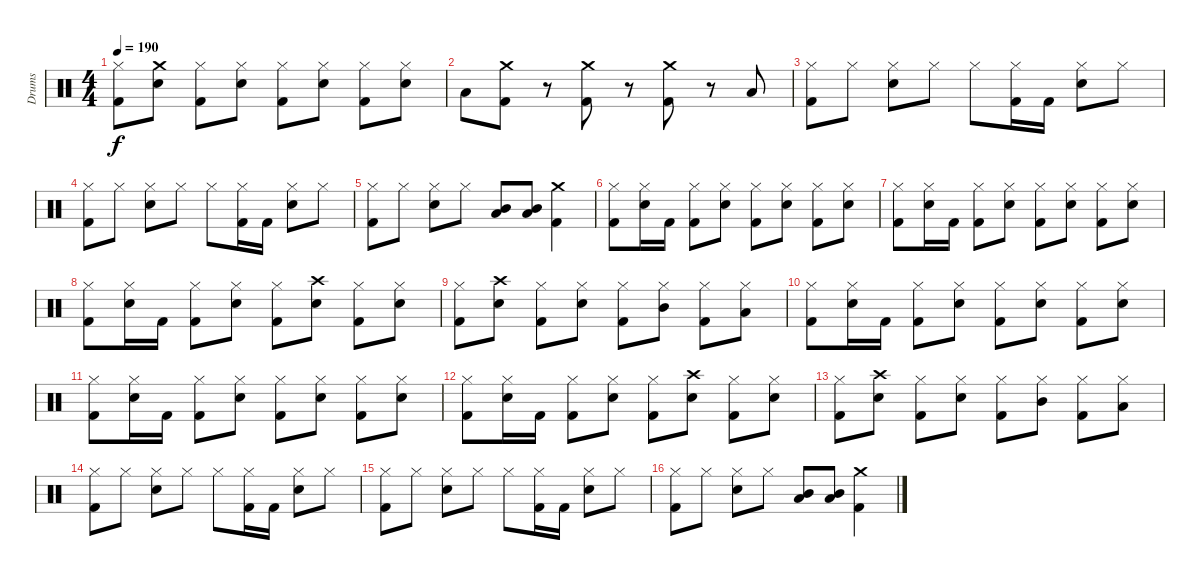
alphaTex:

\track ("Drums" "Drums") {instrument percussion}
\staff {score}
\articulation defaults
\ts (4 4)
\tempo 190
\clef neutral
\ks c
("Kick (hit) 2" "Hi-Hat (closed)").8{dy f} ("Snare (hit) 2" "Crash medium (hit)").8 ("Kick (hit) 2" "Hi-Hat (closed)").8 ("Snare (hit) 2" "Hi-Hat (closed)").8 ("Kick (hit) 2" "Hi-Hat (closed)").8 ("Snare (hit) 2" "Hi-Hat (closed)").8 ("Kick (hit) 2" "Hi-Hat (closed)").8 ("Snare (hit) 2" "Hi-Hat (closed)").8 |
"Low Tom (hit)".8 ("Kick (hit) 2" "Crash medium (hit)").8 r.8 ("Kick (hit) 2" "Crash medium (hit)").8 r.8 ("Kick (hit) 2" "Crash medium (hit)").8 r.8 "Low Tom (hit)".8 |
("Kick (hit) 2" "Hi-Hat (closed)").8 "Hi-Hat (closed)".8 ("Snare (hit) 2" "Hi-Hat (closed)").8 "Hi-Hat (closed)".8 "Hi-Hat (closed)".8 ("Kick (hit) 2" "Hi-Hat (closed)").16 "Kick (hit) 2".16 ("Snare (hit) 2" "Hi-Hat (closed)").8 "Hi-Hat (closed)".8 |
("Kick (hit) 2" "Hi-Hat (closed)").8 "Hi-Hat (closed)".8 ("Snare (hit) 2" "Hi-Hat (closed)").8 "Hi-Hat (closed)".8 "Hi-Hat (closed)".8 ("Kick (hit) 2" "Hi-Hat (closed)").16 "Kick (hit) 2".16 ("Snare (hit) 2" "Hi-Hat (closed)").8 "Hi-Hat (closed)".8 |
("Kick (hit) 2" "Hi-Hat (closed)").8 "Hi-Hat (closed)".8 ("Snare (hit) 2" "Hi-Hat (closed)").8 "Hi-Hat (closed)".8 ("Mid Tom (hit)" "Low Tom (hit)").8{bd 240} ("Mid Tom (hit)" "Low Tom (hit)").8{bu 240} ("Crash medium (hit)" "Kick (hit) 2").4 |
("Kick (hit) 2" "Hi-Hat (closed)").8 ("Snare (hit) 2" "Hi-Hat (closed)").16 "Kick (hit) 2".16 ("Kick (hit) 2" "Hi-Hat (closed)").8 ("Snare (hit) 2" "Hi-Hat (closed)").8 ("Kick (hit) 2" "Hi-Hat (closed)").8 ("Snare (hit) 2" "Hi-Hat (closed)").8 ("Kick (hit) 2" "Hi-Hat (closed)").8 ("Snare (hit) 2" "Hi-Hat (closed)").8 |
("Kick (hit) 2" "Hi-Hat (closed)").8 ("Snare (hit) 2" "Hi-Hat (closed)").16 "Kick (hit) 2".16 ("Kick (hit) 2" "Hi-Hat (closed)").8 ("Snare (hit) 2" "Hi-Hat (closed)").8 ("Kick (hit) 2" "Hi-Hat (closed)").8 ("Snare (hit) 2" "Hi-Hat (closed)").8 ("Kick (hit) 2" "Hi-Hat (closed)").8 ("Snare (hit) 2" "Hi-Hat (closed)").8 |
("Kick (hit) 2" "Hi-Hat (closed)").8 ("Snare (hit) 2" "Hi-Hat (closed)").16 "Kick (hit) 2".16 ("Kick (hit) 2" "Hi-Hat (closed)").8 ("Snare (hit) 2" "Hi-Hat (closed)").8 ("Kick (hit) 2" "Hi-Hat (closed)").8 ("Snare (hit) 2" "Crash high (hit)").8 ("Kick (hit) 2" "Hi-Hat (closed)").8 ("Snare (hit) 2" "Hi-Hat (closed)").8 |
("Kick (hit) 2" "Hi-Hat (closed)").8 ("Snare (hit) 2" "Crash high (hit)").8 ("Kick (hit) 2" "Hi-Hat (closed)").8 ("Snare (hit) 2" "Hi-Hat (closed)").8 ("Kick (hit) 2" "Hi-Hat (closed)").8 ("Hi-Hat (closed)" "Mid Tom (hit)").8 ("Kick (hit) 2" "Hi-Hat (closed)").8 ("Hi-Hat (closed)" "Low Tom (hit)").8 |
("Kick (hit) 2" "Hi-Hat (closed)").8 ("Snare (hit) 2" "Hi-Hat (closed)").16 "Kick (hit) 2".16 ("Kick (hit) 2" "Hi-Hat (closed)").8 ("Snare (hit) 2" "Hi-Hat (closed)").8 ("Kick (hit) 2" "Hi-Hat (closed)").8 ("Snare (hit) 2" "Hi-Hat (closed)").8 ("Kick (hit) 2" "Hi-Hat (closed)").8 ("Snare (hit) 2" "Hi-Hat (closed)").8 |
("Kick (hit) 2" "Hi-Hat (closed)").8 ("Snare (hit) 2" "Hi-Hat (closed)").16 "Kick (hit) 2".16 ("Kick (hit) 2" "Hi-Hat (closed)").8 ("Snare (hit) 2" "Hi-Hat (closed)").8 ("Kick (hit) 2" "Hi-Hat (closed)").8 ("Snare (hit) 2" "Hi-Hat (closed)").8 ("Kick (hit) 2" "Hi-Hat (closed)").8 ("Snare (hit) 2" "Hi-Hat (closed)").8 |
("Kick (hit) 2" "Hi-Hat (closed)").8 ("Snare (hit) 2" "Hi-Hat (closed)").16 "Kick (hit) 2".16 ("Kick (hit) 2" "Hi-Hat (closed)").8 ("Snare (hit) 2" "Hi-Hat (closed)").8 ("Kick (hit) 2" "Hi-Hat (closed)").8 ("Snare (hit) 2" "Crash high (hit)").8 ("Kick (hit) 2" "Hi-Hat (closed)").8 ("Snare (hit) 2" "Hi-Hat (closed)").8 |
("Kick (hit) 2" "Hi-Hat (closed)").8 ("Snare (hit) 2" "Crash high (hit)").8 ("Kick (hit) 2" "Hi-Hat (closed)").8 ("Snare (hit) 2" "Hi-Hat (closed)").8 ("Kick (hit) 2" "Hi-Hat (closed)").8 ("Hi-Hat (closed)" "Mid Tom (hit)").8 ("Kick (hit) 2" "Hi-Hat (closed)").8 ("Hi-Hat (closed)" "Low Tom (hit)").8 |
("Kick (hit) 2" "Hi-Hat (closed)").8 "Hi-Hat (closed)".8 ("Snare (hit) 2" "Hi-Hat (closed)").8 "Hi-Hat (closed)".8 "Hi-Hat (closed)".8 ("Kick (hit) 2" "Hi-Hat (closed)").16 "Kick (hit) 2".16 ("Snare (hit) 2" "Hi-Hat (closed)").8 "Hi-Hat (closed)".8 |
("Kick (hit) 2" "Hi-Hat (closed)").8 "Hi-Hat (closed)".8 ("Snare (hit) 2" "Hi-Hat (closed)").8 "Hi-Hat (closed)".8 "Hi-Hat (closed)".8 ("Kick (hit) 2" "Hi-Hat (closed)").16 "Kick (hit) 2".16 ("Snare (hit) 2" "Hi-Hat (closed)").8 "Hi-Hat (closed)".8 |
("Kick (hit) 2" "Hi-Hat (closed)").8 "Hi-Hat (closed)".8 ("Snare (hit) 2" "Hi-Hat (closed)").8 "Hi-Hat (closed)".8 ("Mid Tom (hit)" "Low Tom (hit)").8{bd 240} ("Mid Tom (hit)" "Low Tom (hit)").8{bu 240} ("Crash medium (hit)" "Kick (hit) 2").4
